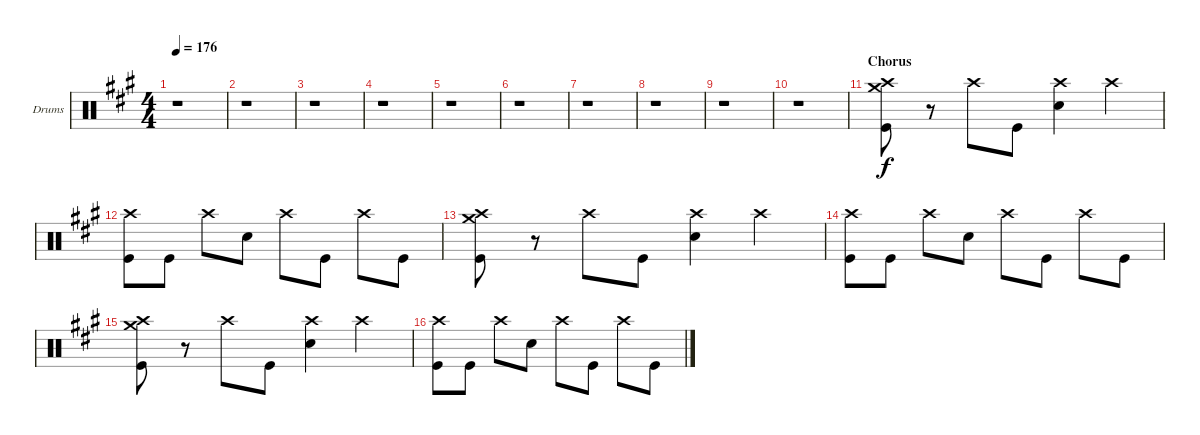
\defaultSystemsLayout 4
\bracketExtendMode groupsimilarinstruments
\firstSystemTrackNameOrientation horizontal
\otherSystemsTrackNameOrientation horizontal
\track ("Drumkit" "Drums") {instrument percussion}
\staff {score}
\articulation defaults
\ts (4 4)
\tempo 176
\clef neutral
\scale
0.333333
\ks a
r.1{dy f} |
\scale
0.333333 r.1 |
\scale
0.333333 r.1 |
\scale
0.333333 r.1 |
\scale
0.333333 r.1 |
\scale
0.333333 r.1 |
\scale
0.333333 r.1 |
\scale
0.333333 r.1 |
\scale
0.333333 r.1 |
\scale
0.333333 r.1 |
\section ("" "Chorus")
\scale
0.333333 ("Crash high (hit)" "Crash medium (hit)" "Kick (hit)").8 r.8 "Crash high (hit)".8 "Kick (hit)".8 ("Crash high (hit)" "Snare (hit) 2").4 "Crash high (hit)".4 |
\scale
0.333333 ("Crash high (hit)" "Kick (hit)").8 "Kick (hit)".8 "Crash high (hit)".8 "Snare (hit) 2".8 "Crash high (hit)".8 "Kick (hit)".8 "Crash high (hit)".8 "Kick (hit)".8 |
\scale
0.333333 ("Crash high (hit)" "Crash medium (hit)" "Kick (hit)").8 r.8 "Crash high (hit)".8 "Kick (hit)".8 ("Crash high (hit)" "Snare (hit) 2").4 "Crash high (hit)".4 |
\scale
0.333333 ("Crash high (hit)" "Kick (hit)").8 "Kick (hit)".8 "Crash high (hit)".8 "Snare (hit) 2".8 "Crash high (hit)".8 "Kick (hit)".8 "Crash high (hit)".8 "Kick (hit)".8 |
\scale
0.333333 ("Crash high (hit)" "Crash medium (hit)" "Kick (hit)").8 r.8 "Crash high (hit)".8 "Kick (hit)".8 ("Crash high (hit)" "Snare (hit) 2").4 "Crash high (hit)".4 |
\scale
0.333333 ("Crash high (hit)" "Kick (hit)").8 "Kick (hit)".8 "Crash high (hit)".8 "Snare (hit) 2".8 "Crash high (hit)".8 "Kick (hit)".8 "Crash high (hit)".8 "Kick (hit)".8
